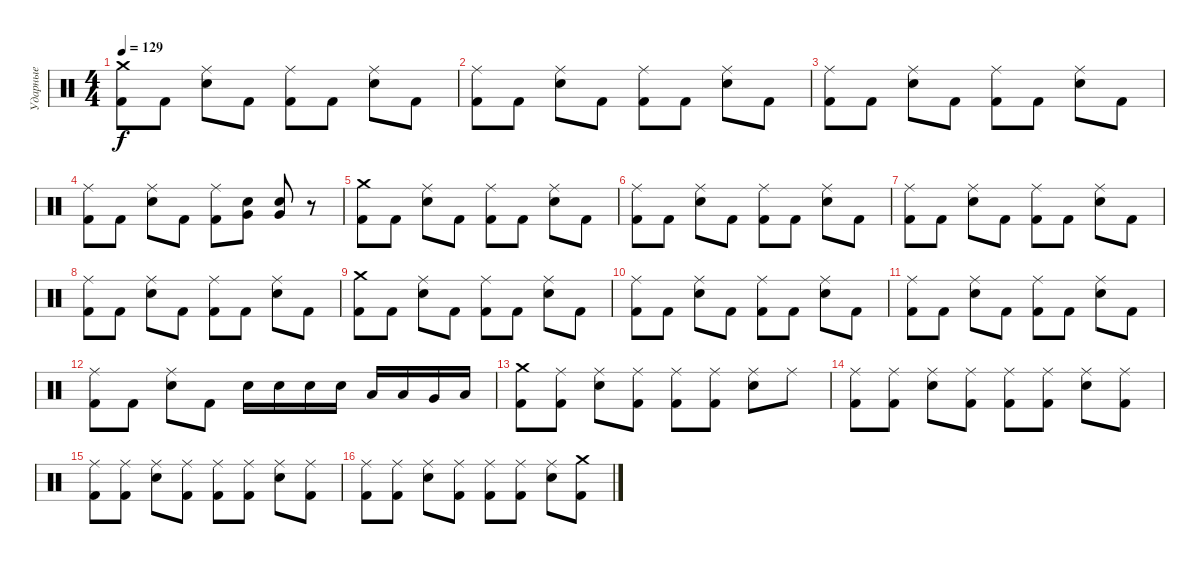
\track ("Ударные" "Ударные") {instrument percussion}
\staff {score}
\articulation defaults
\ts (4 4)
\tempo 129
\clef neutral
\ks c
("Crash medium (hit)" "Kick (hit) 2").8{dy f} "Kick (hit) 2".8 ("Ride (middle)" "Electric Snare (hit)").8 "Kick (hit) 2".8 ("Ride (middle)" "Kick (hit) 2").8 "Kick (hit) 2".8 ("Ride (middle)" "Electric Snare (hit)").8 "Kick (hit) 2".8 |
("Ride (middle)" "Kick (hit) 2").8 "Kick (hit) 2".8 ("Ride (middle)" "Electric Snare (hit)").8 "Kick (hit) 2".8 ("Ride (middle)" "Kick (hit) 2").8 "Kick (hit) 2".8 ("Ride (middle)" "Electric Snare (hit)").8 "Kick (hit) 2".8 |
("Ride (middle)" "Kick (hit) 2").8 "Kick (hit) 2".8 ("Ride (middle)" "Electric Snare (hit)").8 "Kick (hit) 2".8 ("Ride (middle)" "Kick (hit) 2").8 "Kick (hit) 2".8 ("Ride (middle)" "Electric Snare (hit)").8 "Kick (hit) 2".8 |
("Ride (middle)" "Kick (hit) 2").8 "Kick (hit) 2".8 ("Ride (middle)" "Electric Snare (hit)").8 "Kick (hit) 2".8 ("Ride (middle)" "Kick (hit) 2").8 ("Very Low Tom (hit)" "Electric Snare (hit)").8 ("Very Low Tom (hit)" "Electric Snare (hit)").8 r.8 |
("Crash medium (hit)" "Kick (hit) 2").8 "Kick (hit) 2".8 ("Ride (middle)" "Electric Snare (hit)").8 "Kick (hit) 2".8 ("Ride (middle)" "Kick (hit) 2").8 "Kick (hit) 2".8 ("Ride (middle)" "Electric Snare (hit)").8 "Kick (hit) 2".8 |
("Ride (middle)" "Kick (hit) 2").8 "Kick (hit) 2".8 ("Ride (middle)" "Electric Snare (hit)").8 "Kick (hit) 2".8 ("Ride (middle)" "Kick (hit) 2").8 "Kick (hit) 2".8 ("Ride (middle)" "Electric Snare (hit)").8 "Kick (hit) 2".8 |
("Ride (middle)" "Kick (hit) 2").8 "Kick (hit) 2".8 ("Ride (middle)" "Electric Snare (hit)").8 "Kick (hit) 2".8 ("Ride (middle)" "Kick (hit) 2").8 "Kick (hit) 2".8 ("Ride (middle)" "Electric Snare (hit)").8 "Kick (hit) 2".8 |
("Ride (middle)" "Kick (hit) 2").8 "Kick (hit) 2".8 ("Ride (middle)" "Electric Snare (hit)").8 "Kick (hit) 2".8 ("Ride (middle)" "Kick (hit) 2").8 "Kick (hit) 2".8 ("Ride (middle)" "Electric Snare (hit)").8 "Kick (hit) 2".8 |
("Crash medium (hit)" "Kick (hit) 2").8 "Kick (hit) 2".8 ("Ride (middle)" "Electric Snare (hit)").8 "Kick (hit) 2".8 ("Ride (middle)" "Kick (hit) 2").8 "Kick (hit) 2".8 ("Ride (middle)" "Electric Snare (hit)").8 "Kick (hit) 2".8 |
("Ride (middle)" "Kick (hit) 2").8 "Kick (hit) 2".8 ("Ride (middle)" "Electric Snare (hit)").8 "Kick (hit) 2".8 ("Ride (middle)" "Kick (hit) 2").8 "Kick (hit) 2".8 ("Ride (middle)" "Electric Snare (hit)").8 "Kick (hit) 2".8 |
("Ride (middle)" "Kick (hit) 2").8 "Kick (hit) 2".8 ("Ride (middle)" "Electric Snare (hit)").8 "Kick (hit) 2".8 ("Ride (middle)" "Kick (hit) 2").8 "Kick (hit) 2".8 ("Ride (middle)" "Electric Snare (hit)").8 "Kick (hit) 2".8 |
("Ride (middle)" "Kick (hit) 2").8 "Kick (hit) 2".8 ("Ride (middle)" "Electric Snare (hit)").8 "Kick (hit) 2".8 "Electric Snare (hit)".16 "Electric Snare (hit)".16 "Electric Snare (hit)".16 "Electric Snare (hit)".16 "Low Tom (hit)".16 "Low Floor Tom (hit)".16 "Very Low Tom (hit)".16 "Low Tom (hit)".16 |
("Crash medium (hit)" "Kick (hit) 2").8 ("Ride (middle)" "Kick (hit) 2").8 ("Ride (middle)" "Electric Snare (hit)").8 ("Ride (middle)" "Kick (hit) 2").8 ("Ride (middle)" "Kick (hit) 2").8 ("Ride (middle)" "Kick (hit) 2").8 ("Ride (middle)" "Electric Snare (hit)").8 "Ride (middle)".8 |
("Ride (middle)" "Kick (hit) 2").8 ("Ride (middle)" "Kick (hit) 2").8 ("Ride (middle)" "Electric Snare (hit)").8 ("Ride (middle)" "Kick (hit) 2").8 ("Ride (middle)" "Kick (hit) 2").8 ("Ride (middle)" "Kick (hit) 2").8 ("Ride (middle)" "Electric Snare (hit)").8 ("Ride (middle)" "Kick (hit) 2").8 |
("Ride (middle)" "Kick (hit) 2").8 ("Ride (middle)" "Kick (hit) 2").8 ("Ride (middle)" "Electric Snare (hit)").8 ("Ride (middle)" "Kick (hit) 2").8 ("Ride (middle)" "Kick (hit) 2").8 ("Ride (middle)" "Kick (hit) 2").8 ("Ride (middle)" "Electric Snare (hit)").8 ("Ride (middle)" "Kick (hit) 2").8 |
("Ride (middle)" "Kick (hit) 2").8 ("Ride (middle)" "Kick (hit) 2").8 ("Ride (middle)" "Electric Snare (hit)").8 ("Ride (middle)" "Kick (hit) 2").8 ("Ride (middle)" "Kick (hit) 2").8 ("Ride (middle)" "Kick (hit) 2").8 ("Ride (middle)" "Electric Snare (hit)").8 ("Crash medium (hit)" "Kick (hit) 2").8
